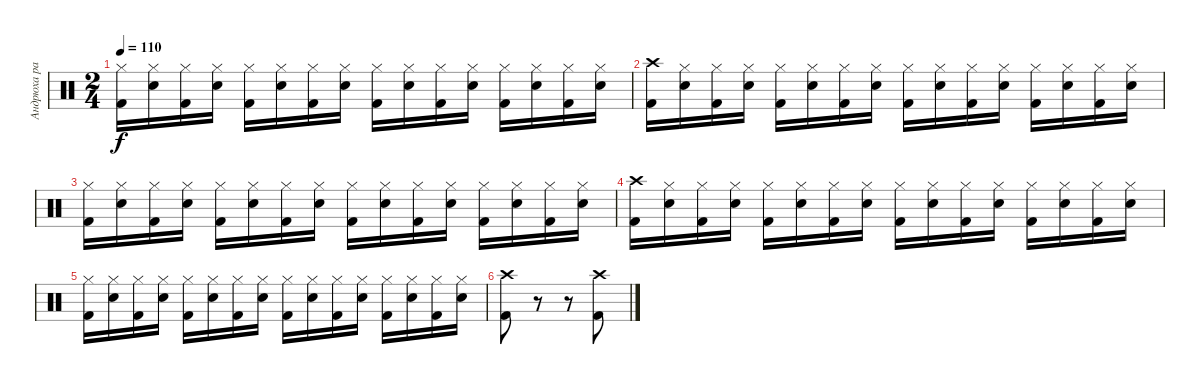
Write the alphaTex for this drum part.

\track ("Андрюха радостный" "Андрюха ра") {instrument percussion}
\staff {score}
\articulation defaults
\ts (2 4)
\tempo 110
\clef neutral
\ks c
("Hi-Hat (closed)" "Kick (hit) 2").16{dy f} ("Hi-Hat (closed)" "Electric Snare (hit)").16 ("Hi-Hat (closed)" "Kick (hit) 2").16 ("Hi-Hat (closed)" "Electric Snare (hit)").16 ("Hi-Hat (closed)" "Kick (hit) 2").16 ("Hi-Hat (closed)" "Electric Snare (hit)").16 ("Hi-Hat (closed)" "Kick (hit) 2").16 ("Hi-Hat (closed)" "Electric Snare (hit)").16 ("Hi-Hat (closed)" "Kick (hit) 2").16 ("Hi-Hat (closed)" "Electric Snare (hit)").16 ("Hi-Hat (closed)" "Kick (hit) 2").16 ("Hi-Hat (closed)" "Electric Snare (hit)").16 ("Hi-Hat (closed)" "Kick (hit) 2").16 ("Hi-Hat (closed)" "Electric Snare (hit)").16 ("Hi-Hat (closed)" "Kick (hit) 2").16 ("Hi-Hat (closed)" "Electric Snare (hit)").16 |
("Crash high (hit)" "Kick (hit) 2").16 ("Hi-Hat (closed)" "Electric Snare (hit)").16 ("Hi-Hat (closed)" "Kick (hit) 2").16 ("Hi-Hat (closed)" "Electric Snare (hit)").16 ("Hi-Hat (closed)" "Kick (hit) 2").16 ("Hi-Hat (closed)" "Electric Snare (hit)").16 ("Hi-Hat (closed)" "Kick (hit) 2").16 ("Hi-Hat (closed)" "Electric Snare (hit)").16 ("Hi-Hat (closed)" "Kick (hit) 2").16 ("Hi-Hat (closed)" "Electric Snare (hit)").16 ("Hi-Hat (closed)" "Kick (hit) 2").16 ("Hi-Hat (closed)" "Electric Snare (hit)").16 ("Hi-Hat (closed)" "Kick (hit) 2").16 ("Hi-Hat (closed)" "Electric Snare (hit)").16 ("Hi-Hat (closed)" "Kick (hit) 2").16 ("Hi-Hat (closed)" "Electric Snare (hit)").16 |
("Hi-Hat (closed)" "Kick (hit) 2").16 ("Hi-Hat (closed)" "Electric Snare (hit)").16 ("Hi-Hat (closed)" "Kick (hit) 2").16 ("Hi-Hat (closed)" "Electric Snare (hit)").16 ("Hi-Hat (closed)" "Kick (hit) 2").16 ("Hi-Hat (closed)" "Electric Snare (hit)").16 ("Hi-Hat (closed)" "Kick (hit) 2").16 ("Hi-Hat (closed)" "Electric Snare (hit)").16 ("Hi-Hat (closed)" "Kick (hit) 2").16 ("Hi-Hat (closed)" "Electric Snare (hit)").16 ("Hi-Hat (closed)" "Kick (hit) 2").16 ("Hi-Hat (closed)" "Electric Snare (hit)").16 ("Hi-Hat (closed)" "Kick (hit) 2").16 ("Hi-Hat (closed)" "Electric Snare (hit)").16 ("Hi-Hat (closed)" "Kick (hit) 2").16 ("Hi-Hat (closed)" "Electric Snare (hit)").16 |
("Crash high (hit)" "Kick (hit) 2").16 ("Hi-Hat (closed)" "Electric Snare (hit)").16 ("Hi-Hat (closed)" "Kick (hit) 2").16 ("Hi-Hat (closed)" "Electric Snare (hit)").16 ("Hi-Hat (closed)" "Kick (hit) 2").16 ("Hi-Hat (closed)" "Electric Snare (hit)").16 ("Hi-Hat (closed)" "Kick (hit) 2").16 ("Hi-Hat (closed)" "Electric Snare (hit)").16 ("Hi-Hat (closed)" "Kick (hit) 2").16 ("Hi-Hat (closed)" "Electric Snare (hit)").16 ("Hi-Hat (closed)" "Kick (hit) 2").16 ("Hi-Hat (closed)" "Electric Snare (hit)").16 ("Hi-Hat (closed)" "Kick (hit) 2").16 ("Hi-Hat (closed)" "Electric Snare (hit)").16 ("Hi-Hat (closed)" "Kick (hit) 2").16 ("Hi-Hat (closed)" "Electric Snare (hit)").16 |
("Hi-Hat (closed)" "Kick (hit) 2").16 ("Hi-Hat (closed)" "Electric Snare (hit)").16 ("Hi-Hat (closed)" "Kick (hit) 2").16 ("Hi-Hat (closed)" "Electric Snare (hit)").16 ("Hi-Hat (closed)" "Kick (hit) 2").16 ("Hi-Hat (closed)" "Electric Snare (hit)").16 ("Hi-Hat (closed)" "Kick (hit) 2").16 ("Hi-Hat (closed)" "Electric Snare (hit)").16 ("Hi-Hat (closed)" "Kick (hit) 2").16 ("Hi-Hat (closed)" "Electric Snare (hit)").16 ("Hi-Hat (closed)" "Kick (hit) 2").16 ("Hi-Hat (closed)" "Electric Snare (hit)").16 ("Hi-Hat (closed)" "Kick (hit) 2").16 ("Hi-Hat (closed)" "Electric Snare (hit)").16 ("Hi-Hat (closed)" "Kick (hit) 2").16 ("Hi-Hat (closed)" "Electric Snare (hit)").16 |
("Crash high (hit)" "Kick (hit) 2").8 r.8 r.8 ("Crash high (hit)" "Kick (hit) 2").8
